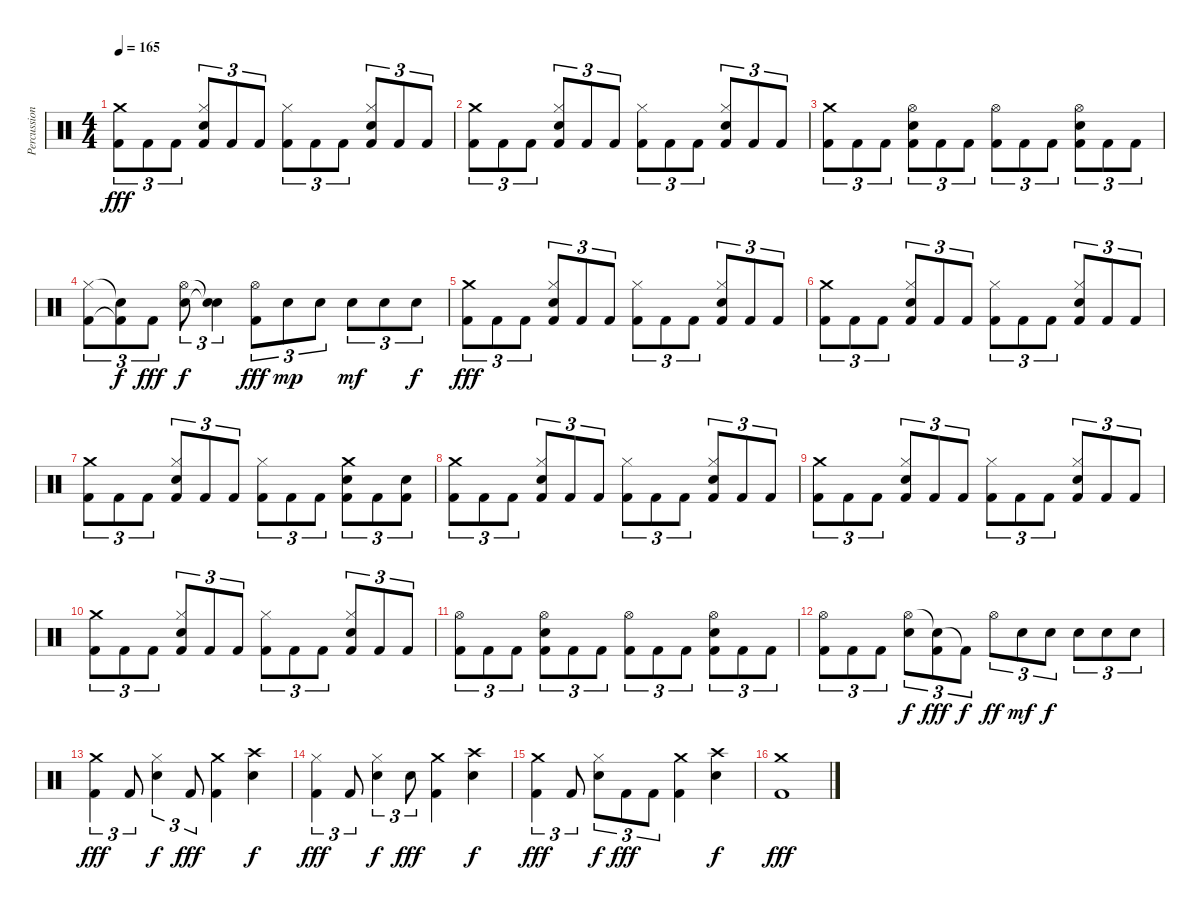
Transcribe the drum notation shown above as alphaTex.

\track ("Percussion" "Percussion") {instrument percussion}
\staff {score}
\articulation defaults
\ts (4 4)
\tempo 165
\clef neutral
\ks c
("Crash medium (hit)" "Kick (hit) 2").8{tu (3 2) dy fff} "Kick (hit) 2".8{tu (3 2)} "Kick (hit) 2".8{tu (3 2)} ("Hi-Hat (closed)" "Electric Snare (hit)" "Kick (hit) 2").8{tu (3 2)} "Kick (hit) 2".8{tu (3 2)} "Kick (hit) 2".8{tu (3 2)} ("Hi-Hat (closed)" "Kick (hit) 2").8{tu (3 2)} "Kick (hit) 2".8{tu (3 2)} "Kick (hit) 2".8{tu (3 2)} ("Hi-Hat (closed)" "Electric Snare (hit)" "Kick (hit) 2").8{tu (3 2)} "Kick (hit) 2".8{tu (3 2)} "Kick (hit) 2".8{tu (3 2)} |
("Crash medium (hit)" "Kick (hit) 2").8{tu (3 2)} "Kick (hit) 2".8{tu (3 2)} "Kick (hit) 2".8{tu (3 2)} ("Hi-Hat (closed)" "Electric Snare (hit)" "Kick (hit) 2").8{tu (3 2)} "Kick (hit) 2".8{tu (3 2)} "Kick (hit) 2".8{tu (3 2)} ("Hi-Hat (closed)" "Kick (hit) 2").8{tu (3 2)} "Kick (hit) 2".8{tu (3 2)} "Kick (hit) 2".8{tu (3 2)} ("Hi-Hat (closed)" "Electric Snare (hit)" "Kick (hit) 2").8{tu (3 2)} "Kick (hit) 2".8{tu (3 2)} "Kick (hit) 2".8{tu (3 2)} |
("Crash medium (hit)" "Kick (hit) 2").8{tu (3 2)} "Kick (hit) 2".8{tu (3 2)} "Kick (hit) 2".8{tu (3 2)} ("Hi-Hat (open)" "Electric Snare (hit)" "Kick (hit) 2").8{tu (3 2)} "Kick (hit) 2".8{tu (3 2)} "Kick (hit) 2".8{tu (3 2)} ("Hi-Hat (open)" "Kick (hit) 2").8{tu (3 2)} "Kick (hit) 2".8{tu (3 2)} "Kick (hit) 2".8{tu (3 2)} ("Hi-Hat (open)" "Electric Snare (hit)" "Kick (hit) 2").8{tu (3 2)} "Kick (hit) 2".8{tu (3 2)} "Kick (hit) 2".8{tu (3 2)} |
("Hi-Hat (closed)" "Kick (hit) 2").8{tu (3 2)} ("Snare (hit)"{t} "Kick (hit) 2"{t}).8{tu (3 2) dy f} "Kick (hit) 2".8{tu (3 2) dy fff} ("Hi-Hat (open)" "Electric Snare (hit)").8{tu (3 2) dy f} ("Snare (hit)"{t} "Snare (hit)"{t}).4{tu (3 2)} ("Hi-Hat (open)" "Kick (hit) 2").8{tu (3 2) dy fff} "Electric Snare (hit)".8{tu (3 2) dy mp} "Electric Snare (hit)".8{tu (3 2)} "Electric Snare (hit)".8{tu (3 2) dy mf} "Electric Snare (hit)".8{tu (3 2)} "Electric Snare (hit)".8{tu (3 2) dy f} |
("Crash medium (hit)" "Kick (hit) 2").8{tu (3 2) dy fff} "Kick (hit) 2".8{tu (3 2)} "Kick (hit) 2".8{tu (3 2)} ("Hi-Hat (closed)" "Electric Snare (hit)" "Kick (hit) 2").8{tu (3 2)} "Kick (hit) 2".8{tu (3 2)} "Kick (hit) 2".8{tu (3 2)} ("Hi-Hat (closed)" "Kick (hit) 2").8{tu (3 2)} "Kick (hit) 2".8{tu (3 2)} "Kick (hit) 2".8{tu (3 2)} ("Hi-Hat (closed)" "Electric Snare (hit)" "Kick (hit) 2").8{tu (3 2)} "Kick (hit) 2".8{tu (3 2)} "Kick (hit) 2".8{tu (3 2)} |
("Crash medium (hit)" "Kick (hit) 2").8{tu (3 2)} "Kick (hit) 2".8{tu (3 2)} "Kick (hit) 2".8{tu (3 2)} ("Hi-Hat (closed)" "Electric Snare (hit)" "Kick (hit) 2").8{tu (3 2)} "Kick (hit) 2".8{tu (3 2)} "Kick (hit) 2".8{tu (3 2)} ("Hi-Hat (closed)" "Kick (hit) 2").8{tu (3 2)} "Kick (hit) 2".8{tu (3 2)} "Kick (hit) 2".8{tu (3 2)} ("Hi-Hat (closed)" "Electric Snare (hit)" "Kick (hit) 2").8{tu (3 2)} "Kick (hit) 2".8{tu (3 2)} "Kick (hit) 2".8{tu (3 2)} |
("Crash medium (hit)" "Kick (hit) 2").8{tu (3 2)} "Kick (hit) 2".8{tu (3 2)} "Kick (hit) 2".8{tu (3 2)} ("Hi-Hat (closed)" "Electric Snare (hit)" "Kick (hit) 2").8{tu (3 2)} "Kick (hit) 2".8{tu (3 2)} "Kick (hit) 2".8{tu (3 2)} ("Hi-Hat (closed)" "Kick (hit) 2").8{tu (3 2)} "Kick (hit) 2".8{tu (3 2)} "Kick (hit) 2".8{tu (3 2)} ("Crash medium (hit)" "Electric Snare (hit)" "Kick (hit) 2").8{tu (3 2)} "Kick (hit) 2".8{tu (3 2)} ("Electric Snare (hit)" "Kick (hit) 2").8{tu (3 2)} |
("Crash medium (hit)" "Kick (hit) 2").8{tu (3 2)} "Kick (hit) 2".8{tu (3 2)} "Kick (hit) 2".8{tu (3 2)} ("Hi-Hat (closed)" "Electric Snare (hit)" "Kick (hit) 2").8{tu (3 2)} "Kick (hit) 2".8{tu (3 2)} "Kick (hit) 2".8{tu (3 2)} ("Hi-Hat (closed)" "Kick (hit) 2").8{tu (3 2)} "Kick (hit) 2".8{tu (3 2)} "Kick (hit) 2".8{tu (3 2)} ("Hi-Hat (closed)" "Electric Snare (hit)" "Kick (hit) 2").8{tu (3 2)} "Kick (hit) 2".8{tu (3 2)} "Kick (hit) 2".8{tu (3 2)} |
("Crash medium (hit)" "Kick (hit) 2").8{tu (3 2)} "Kick (hit) 2".8{tu (3 2)} "Kick (hit) 2".8{tu (3 2)} ("Hi-Hat (closed)" "Electric Snare (hit)" "Kick (hit) 2").8{tu (3 2)} "Kick (hit) 2".8{tu (3 2)} "Kick (hit) 2".8{tu (3 2)} ("Hi-Hat (closed)" "Kick (hit) 2").8{tu (3 2)} "Kick (hit) 2".8{tu (3 2)} "Kick (hit) 2".8{tu (3 2)} ("Hi-Hat (closed)" "Electric Snare (hit)" "Kick (hit) 2").8{tu (3 2)} "Kick (hit) 2".8{tu (3 2)} "Kick (hit) 2".8{tu (3 2)} |
("Crash medium (hit)" "Kick (hit) 2").8{tu (3 2)} "Kick (hit) 2".8{tu (3 2)} "Kick (hit) 2".8{tu (3 2)} ("Hi-Hat (closed)" "Electric Snare (hit)" "Kick (hit) 2").8{tu (3 2)} "Kick (hit) 2".8{tu (3 2)} "Kick (hit) 2".8{tu (3 2)} ("Hi-Hat (closed)" "Kick (hit) 2").8{tu (3 2)} "Kick (hit) 2".8{tu (3 2)} "Kick (hit) 2".8{tu (3 2)} ("Hi-Hat (closed)" "Electric Snare (hit)" "Kick (hit) 2").8{tu (3 2)} "Kick (hit) 2".8{tu (3 2)} "Kick (hit) 2".8{tu (3 2)} |
("Hi-Hat (open)" "Kick (hit) 2").8{tu (3 2)} "Kick (hit) 2".8{tu (3 2)} "Kick (hit) 2".8{tu (3 2)} ("Hi-Hat (open)" "Electric Snare (hit)" "Kick (hit) 2").8{tu (3 2)} "Kick (hit) 2".8{tu (3 2)} "Kick (hit) 2".8{tu (3 2)} ("Hi-Hat (open)" "Kick (hit) 2").8{tu (3 2)} "Kick (hit) 2".8{tu (3 2)} "Kick (hit) 2".8{tu (3 2)} ("Hi-Hat (open)" "Electric Snare (hit)" "Kick (hit) 2").8{tu (3 2)} "Kick (hit) 2".8{tu (3 2)} "Kick (hit) 2".8{tu (3 2)} |
("Hi-Hat (open)" "Kick (hit) 2").8{tu (3 2)} "Kick (hit) 2".8{tu (3 2)} "Kick (hit) 2".8{tu (3 2)} ("Hi-Hat (open)" "Electric Snare (hit)").8{tu (3 2) dy f} ("Snare (hit)"{t} "Kick (hit) 2").8{tu (3 2) dy fff} "Kick (hit) 2"{t}.8{tu (3 2) dy f} "Hi-Hat (open)".8{tu (3 2) dy ff} "Electric Snare (hit)".8{tu (3 2) dy mf} "Electric Snare (hit)".8{tu (3 2) dy f} "Electric Snare (hit)".8{tu (3 2)} "Electric Snare (hit)".8{tu (3 2)} "Electric Snare (hit)".8{tu (3 2)} |
("Crash medium (hit)" "Kick (hit) 2").4{tu (3 2) dy fff} "Kick (hit) 2".8{tu (3 2)} ("Hi-Hat (closed)" "Electric Snare (hit)").4{tu (3 2) dy f} "Kick (hit) 2".8{tu (3 2) dy fff} ("Crash medium (hit)" "Kick (hit) 2").4 ("Crash high (hit)" "Electric Snare (hit)").4{dy f} |
("Hi-Hat (closed)" "Kick (hit) 2").4{tu (3 2) dy fff} "Kick (hit) 2".8{tu (3 2)} ("Hi-Hat (closed)" "Electric Snare (hit)").4{tu (3 2) dy f} "Electric Snare (hit)".8{tu (3 2) dy fff} ("Crash medium (hit)" "Kick (hit) 2").4 ("Crash high (hit)" "Electric Snare (hit)").4{dy f} |
("Crash medium (hit)" "Kick (hit) 2").4{tu (3 2) dy fff} "Kick (hit) 2".8{tu (3 2)} ("Hi-Hat (closed)" "Electric Snare (hit)").8{tu (3 2) dy f} "Kick (hit) 2".8{tu (3 2) dy fff} "Kick (hit) 2".8{tu (3 2)} ("Crash medium (hit)" "Kick (hit) 2").4 ("Crash high (hit)" "Electric Snare (hit)").4{dy f} |
("Crash medium (hit)" "Kick (hit) 2").1{dy fff}
